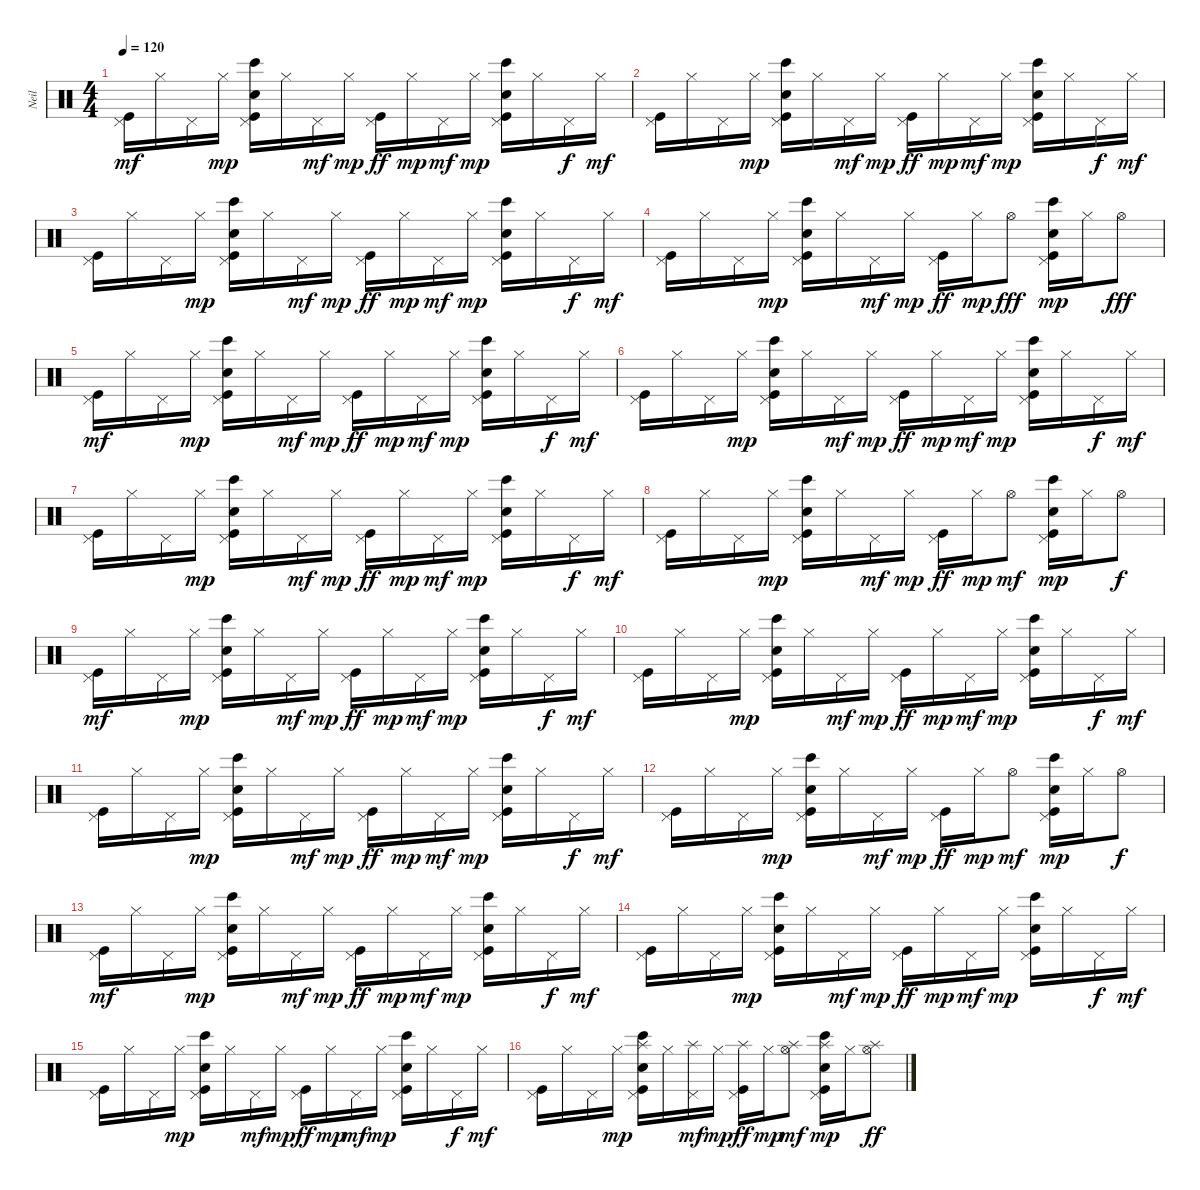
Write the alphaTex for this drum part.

\track ("Neil" "Neil") {instrument percussion}
\staff {score}
\articulation defaults
\ts (4 4)
\tempo 120
\clef neutral
\ks c
("Pedal Hi-Hat (hit)" "Kick (hit)").16{dy mf} "Hi-Hat (closed)".16 "Pedal Hi-Hat (hit)".16 "Hi-Hat (closed)".16{dy mp} ("Electric Snare (hit)" "Pedal Hi-Hat (hit)" "Kick (hit)" "Bongo High (hit)").16 "Hi-Hat (closed)".16 "Pedal Hi-Hat (hit)".16{dy mf} "Hi-Hat (closed)".16{dy mp} ("Pedal Hi-Hat (hit)" "Kick (hit)").16{dy ff} "Hi-Hat (closed)".16{dy mp} "Pedal Hi-Hat (hit)".16{dy mf} "Hi-Hat (closed)".16{dy mp} ("Electric Snare (hit)" "Pedal Hi-Hat (hit)" "Kick (hit)" "Bongo High (hit)").16 "Hi-Hat (closed)".16 "Pedal Hi-Hat (hit)".16{dy f} "Hi-Hat (closed)".16{dy mf} |
("Pedal Hi-Hat (hit)" "Kick (hit)").16 "Hi-Hat (closed)".16 "Pedal Hi-Hat (hit)".16 "Hi-Hat (closed)".16{dy mp} ("Electric Snare (hit)" "Pedal Hi-Hat (hit)" "Kick (hit)" "Bongo High (hit)").16 "Hi-Hat (closed)".16 "Pedal Hi-Hat (hit)".16{dy mf} "Hi-Hat (closed)".16{dy mp} ("Pedal Hi-Hat (hit)" "Kick (hit)").16{dy ff} "Hi-Hat (closed)".16{dy mp} "Pedal Hi-Hat (hit)".16{dy mf} "Hi-Hat (closed)".16{dy mp} ("Electric Snare (hit)" "Pedal Hi-Hat (hit)" "Kick (hit)" "Bongo High (hit)").16 "Hi-Hat (closed)".16 "Pedal Hi-Hat (hit)".16{dy f} "Hi-Hat (closed)".16{dy mf} |
("Pedal Hi-Hat (hit)" "Kick (hit)").16 "Hi-Hat (closed)".16 "Pedal Hi-Hat (hit)".16 "Hi-Hat (closed)".16{dy mp} ("Electric Snare (hit)" "Pedal Hi-Hat (hit)" "Kick (hit)" "Bongo High (hit)").16 "Hi-Hat (closed)".16 "Pedal Hi-Hat (hit)".16{dy mf} "Hi-Hat (closed)".16{dy mp} ("Pedal Hi-Hat (hit)" "Kick (hit)").16{dy ff} "Hi-Hat (closed)".16{dy mp} "Pedal Hi-Hat (hit)".16{dy mf} "Hi-Hat (closed)".16{dy mp} ("Electric Snare (hit)" "Pedal Hi-Hat (hit)" "Kick (hit)" "Bongo High (hit)").16 "Hi-Hat (closed)".16 "Pedal Hi-Hat (hit)".16{dy f} "Hi-Hat (closed)".16{dy mf} |
("Pedal Hi-Hat (hit)" "Kick (hit)").16 "Hi-Hat (closed)".16 "Pedal Hi-Hat (hit)".16 "Hi-Hat (closed)".16{dy mp} ("Electric Snare (hit)" "Pedal Hi-Hat (hit)" "Kick (hit)" "Bongo High (hit)").16 "Hi-Hat (closed)".16 "Pedal Hi-Hat (hit)".16{dy mf} "Hi-Hat (closed)".16{dy mp} ("Pedal Hi-Hat (hit)" "Kick (hit)").16{dy ff} "Hi-Hat (closed)".16{dy mp} "Hi-Hat (open)".8{dy fff} ("Electric Snare (hit)" "Pedal Hi-Hat (hit)" "Kick (hit)" "Bongo High (hit)").16{dy mp} "Hi-Hat (closed)".16 "Hi-Hat (open)".8{dy fff} |
("Pedal Hi-Hat (hit)" "Kick (hit)").16{dy mf} "Hi-Hat (closed)".16 "Pedal Hi-Hat (hit)".16 "Hi-Hat (closed)".16{dy mp} ("Electric Snare (hit)" "Pedal Hi-Hat (hit)" "Kick (hit)" "Bongo High (hit)").16 "Hi-Hat (closed)".16 "Pedal Hi-Hat (hit)".16{dy mf} "Hi-Hat (closed)".16{dy mp} ("Pedal Hi-Hat (hit)" "Kick (hit)").16{dy ff} "Hi-Hat (closed)".16{dy mp} "Pedal Hi-Hat (hit)".16{dy mf} "Hi-Hat (closed)".16{dy mp} ("Electric Snare (hit)" "Pedal Hi-Hat (hit)" "Kick (hit)" "Bongo High (hit)").16 "Hi-Hat (closed)".16 "Pedal Hi-Hat (hit)".16{dy f} "Hi-Hat (closed)".16{dy mf} |
("Pedal Hi-Hat (hit)" "Kick (hit)").16 "Hi-Hat (closed)".16 "Pedal Hi-Hat (hit)".16 "Hi-Hat (closed)".16{dy mp} ("Electric Snare (hit)" "Pedal Hi-Hat (hit)" "Kick (hit)" "Bongo High (hit)").16 "Hi-Hat (closed)".16 "Pedal Hi-Hat (hit)".16{dy mf} "Hi-Hat (closed)".16{dy mp} ("Pedal Hi-Hat (hit)" "Kick (hit)").16{dy ff} "Hi-Hat (closed)".16{dy mp} "Pedal Hi-Hat (hit)".16{dy mf} "Hi-Hat (closed)".16{dy mp} ("Electric Snare (hit)" "Pedal Hi-Hat (hit)" "Kick (hit)" "Bongo High (hit)").16 "Hi-Hat (closed)".16 "Pedal Hi-Hat (hit)".16{dy f} "Hi-Hat (closed)".16{dy mf} |
("Pedal Hi-Hat (hit)" "Kick (hit)").16 "Hi-Hat (closed)".16 "Pedal Hi-Hat (hit)".16 "Hi-Hat (closed)".16{dy mp} ("Electric Snare (hit)" "Pedal Hi-Hat (hit)" "Kick (hit)" "Bongo High (hit)").16 "Hi-Hat (closed)".16 "Pedal Hi-Hat (hit)".16{dy mf} "Hi-Hat (closed)".16{dy mp} ("Pedal Hi-Hat (hit)" "Kick (hit)").16{dy ff} "Hi-Hat (closed)".16{dy mp} "Pedal Hi-Hat (hit)".16{dy mf} "Hi-Hat (closed)".16{dy mp} ("Electric Snare (hit)" "Pedal Hi-Hat (hit)" "Kick (hit)" "Bongo High (hit)").16 "Hi-Hat (closed)".16 "Pedal Hi-Hat (hit)".16{dy f} "Hi-Hat (closed)".16{dy mf} |
("Pedal Hi-Hat (hit)" "Kick (hit)").16 "Hi-Hat (closed)".16 "Pedal Hi-Hat (hit)".16 "Hi-Hat (closed)".16{dy mp} ("Electric Snare (hit)" "Pedal Hi-Hat (hit)" "Kick (hit)" "Bongo High (hit)").16 "Hi-Hat (closed)".16 "Pedal Hi-Hat (hit)".16{dy mf} "Hi-Hat (closed)".16{dy mp} ("Pedal Hi-Hat (hit)" "Kick (hit)").16{dy ff} "Hi-Hat (closed)".16{dy mp} "Hi-Hat (open)".8{dy mf} ("Electric Snare (hit)" "Pedal Hi-Hat (hit)" "Kick (hit)" "Bongo High (hit)").16{dy mp} "Hi-Hat (closed)".16 "Hi-Hat (open)".8{dy f} |
("Pedal Hi-Hat (hit)" "Kick (hit)").16{dy mf} "Hi-Hat (closed)".16 "Pedal Hi-Hat (hit)".16 "Hi-Hat (closed)".16{dy mp} ("Electric Snare (hit)" "Pedal Hi-Hat (hit)" "Kick (hit)" "Bongo High (hit)").16 "Hi-Hat (closed)".16 "Pedal Hi-Hat (hit)".16{dy mf} "Hi-Hat (closed)".16{dy mp} ("Pedal Hi-Hat (hit)" "Kick (hit)").16{dy ff} "Hi-Hat (closed)".16{dy mp} "Pedal Hi-Hat (hit)".16{dy mf} "Hi-Hat (closed)".16{dy mp} ("Electric Snare (hit)" "Pedal Hi-Hat (hit)" "Kick (hit)" "Bongo High (hit)").16 "Hi-Hat (closed)".16 "Pedal Hi-Hat (hit)".16{dy f} "Hi-Hat (closed)".16{dy mf} |
("Pedal Hi-Hat (hit)" "Kick (hit)").16 "Hi-Hat (closed)".16 "Pedal Hi-Hat (hit)".16 "Hi-Hat (closed)".16{dy mp} ("Electric Snare (hit)" "Pedal Hi-Hat (hit)" "Kick (hit)" "Bongo High (hit)").16 "Hi-Hat (closed)".16 "Pedal Hi-Hat (hit)".16{dy mf} "Hi-Hat (closed)".16{dy mp} ("Pedal Hi-Hat (hit)" "Kick (hit)").16{dy ff} "Hi-Hat (closed)".16{dy mp} "Pedal Hi-Hat (hit)".16{dy mf} "Hi-Hat (closed)".16{dy mp} ("Electric Snare (hit)" "Pedal Hi-Hat (hit)" "Kick (hit)" "Bongo High (hit)").16 "Hi-Hat (closed)".16 "Pedal Hi-Hat (hit)".16{dy f} "Hi-Hat (closed)".16{dy mf} |
("Pedal Hi-Hat (hit)" "Kick (hit)").16 "Hi-Hat (closed)".16 "Pedal Hi-Hat (hit)".16 "Hi-Hat (closed)".16{dy mp} ("Electric Snare (hit)" "Pedal Hi-Hat (hit)" "Kick (hit)" "Bongo High (hit)").16 "Hi-Hat (closed)".16 "Pedal Hi-Hat (hit)".16{dy mf} "Hi-Hat (closed)".16{dy mp} ("Pedal Hi-Hat (hit)" "Kick (hit)").16{dy ff} "Hi-Hat (closed)".16{dy mp} "Pedal Hi-Hat (hit)".16{dy mf} "Hi-Hat (closed)".16{dy mp} ("Electric Snare (hit)" "Pedal Hi-Hat (hit)" "Kick (hit)" "Bongo High (hit)").16 "Hi-Hat (closed)".16 "Pedal Hi-Hat (hit)".16{dy f} "Hi-Hat (closed)".16{dy mf} |
("Pedal Hi-Hat (hit)" "Kick (hit)").16 "Hi-Hat (closed)".16 "Pedal Hi-Hat (hit)".16 "Hi-Hat (closed)".16{dy mp} ("Electric Snare (hit)" "Pedal Hi-Hat (hit)" "Kick (hit)" "Bongo High (hit)").16 "Hi-Hat (closed)".16 "Pedal Hi-Hat (hit)".16{dy mf} "Hi-Hat (closed)".16{dy mp} ("Pedal Hi-Hat (hit)" "Kick (hit)").16{dy ff} "Hi-Hat (closed)".16{dy mp} "Hi-Hat (open)".8{dy mf} ("Electric Snare (hit)" "Pedal Hi-Hat (hit)" "Kick (hit)" "Bongo High (hit)").16{dy mp} "Hi-Hat (closed)".16 "Hi-Hat (open)".8{dy f} |
("Pedal Hi-Hat (hit)" "Kick (hit)").16{dy mf} "Hi-Hat (closed)".16 "Pedal Hi-Hat (hit)".16 "Hi-Hat (closed)".16{dy mp} ("Electric Snare (hit)" "Pedal Hi-Hat (hit)" "Kick (hit)" "Bongo High (hit)").16 "Hi-Hat (closed)".16 "Pedal Hi-Hat (hit)".16{dy mf} "Hi-Hat (closed)".16{dy mp} ("Pedal Hi-Hat (hit)" "Kick (hit)").16{dy ff} "Hi-Hat (closed)".16{dy mp} "Pedal Hi-Hat (hit)".16{dy mf} "Hi-Hat (closed)".16{dy mp} ("Electric Snare (hit)" "Pedal Hi-Hat (hit)" "Kick (hit)" "Bongo High (hit)").16 "Hi-Hat (closed)".16 "Pedal Hi-Hat (hit)".16{dy f} "Hi-Hat (closed)".16{dy mf} |
("Pedal Hi-Hat (hit)" "Kick (hit)").16 "Hi-Hat (closed)".16 "Pedal Hi-Hat (hit)".16 "Hi-Hat (closed)".16{dy mp} ("Electric Snare (hit)" "Pedal Hi-Hat (hit)" "Kick (hit)" "Bongo High (hit)").16 "Hi-Hat (closed)".16 "Pedal Hi-Hat (hit)".16{dy mf} "Hi-Hat (closed)".16{dy mp} ("Pedal Hi-Hat (hit)" "Kick (hit)").16{dy ff} "Hi-Hat (closed)".16{dy mp} "Pedal Hi-Hat (hit)".16{dy mf} "Hi-Hat (closed)".16{dy mp} ("Electric Snare (hit)" "Pedal Hi-Hat (hit)" "Kick (hit)" "Bongo High (hit)").16 "Hi-Hat (closed)".16 "Pedal Hi-Hat (hit)".16{dy f} "Hi-Hat (closed)".16{dy mf} |
("Pedal Hi-Hat (hit)" "Kick (hit)").16 "Hi-Hat (closed)".16 "Pedal Hi-Hat (hit)".16 "Hi-Hat (closed)".16{dy mp} ("Electric Snare (hit)" "Pedal Hi-Hat (hit)" "Kick (hit)" "Bongo High (hit)").16 "Hi-Hat (closed)".16 "Pedal Hi-Hat (hit)".16{dy mf} "Hi-Hat (closed)".16{dy mp} ("Pedal Hi-Hat (hit)" "Kick (hit)").16{dy ff} "Hi-Hat (closed)".16{dy mp} "Pedal Hi-Hat (hit)".16{dy mf} "Hi-Hat (closed)".16{dy mp} ("Electric Snare (hit)" "Pedal Hi-Hat (hit)" "Kick (hit)" "Bongo High (hit)").16 "Hi-Hat (closed)".16 "Pedal Hi-Hat (hit)".16{dy f} "Hi-Hat (closed)".16{dy mf} |
("Pedal Hi-Hat (hit)" "Kick (hit)").16 "Hi-Hat (closed)".16 "Pedal Hi-Hat (hit)".16 "Hi-Hat (closed)".16{dy mp} ("Electric Snare (hit)" "Pedal Hi-Hat (hit)" "Kick (hit)" "Splash (hit)" "Bongo High (hit)").16 "Hi-Hat (closed)".16 ("Splash (hit)" "Pedal Hi-Hat (hit)").16{dy mf} "Hi-Hat (closed)".16{dy mp} ("Splash (hit)" "Pedal Hi-Hat (hit)" "Kick (hit)").16{dy ff} "Hi-Hat (closed)".16{dy mp} ("Splash (hit)" "Hi-Hat (open)").8{dy mf} ("Splash (hit)" "Electric Snare (hit)" "Pedal Hi-Hat (hit)" "Kick (hit)" "Bongo High (hit)").16{dy mp} "Hi-Hat (closed)".16 ("Splash (hit)" "Hi-Hat (open)").8{dy ff}
